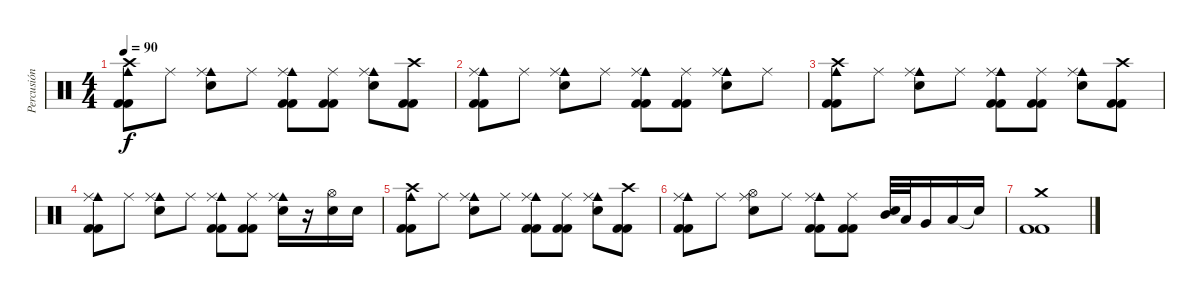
\track ("Percusión" "Percusión") {instrument percussion}
\staff {score}
\articulation defaults
\ts (4 4)
\tempo 90
\clef neutral
\ks c
("Kick (hit) 2" "Cowbell medium (hit)" "Crash high (hit)" "Kick (hit) 2").8{dy f} "Ride (middle)".8 ("Electric Snare (hit)" "Cowbell medium (hit)" "Ride (middle)").8 "Ride (middle)".8 ("Kick (hit) 2" "Cowbell medium (hit)" "Ride (middle)" "Kick (hit) 2").8 ("Kick (hit) 2" "Ride (middle)" "Kick (hit) 2").8 ("Electric Snare (hit)" "Cowbell medium (hit)" "Ride (middle)").8 ("Kick (hit) 2" "Crash high (hit)" "Kick (hit) 2").8 |
("Kick (hit) 2" "Cowbell medium (hit)" "Ride (middle)" "Kick (hit) 2").8 "Ride (middle)".8 ("Electric Snare (hit)" "Cowbell medium (hit)" "Ride (middle)").8 "Ride (middle)".8 ("Kick (hit) 2" "Cowbell medium (hit)" "Ride (middle)" "Kick (hit) 2").8 ("Kick (hit) 2" "Ride (middle)" "Kick (hit) 2").8 ("Electric Snare (hit)" "Cowbell medium (hit)" "Ride (middle)").8 "Ride (middle)".8 |
("Kick (hit) 2" "Cowbell medium (hit)" "Crash high (hit)" "Kick (hit) 2").8 "Ride (middle)".8 ("Electric Snare (hit)" "Cowbell medium (hit)" "Ride (middle)").8 "Ride (middle)".8 ("Kick (hit) 2" "Cowbell medium (hit)" "Ride (middle)" "Kick (hit) 2").8 ("Kick (hit) 2" "Ride (middle)" "Kick (hit) 2").8 ("Electric Snare (hit)" "Cowbell medium (hit)" "Ride (middle)").8 ("Kick (hit) 2" "Crash high (hit)" "Kick (hit) 2").8 |
("Kick (hit) 2" "Cowbell medium (hit)" "Ride (middle)" "Kick (hit) 2").8 "Ride (middle)".8 ("Electric Snare (hit)" "Cowbell medium (hit)" "Ride (middle)").8 "Ride (middle)".8 ("Kick (hit) 2" "Cowbell medium (hit)" "Ride (middle)" "Kick (hit) 2").8 ("Kick (hit) 2" "Ride (middle)" "Kick (hit) 2").8 ("Electric Snare (hit)" "Cowbell medium (hit)" "Ride (middle)").16 r.16 ("Electric Snare (hit)" "Hi-Hat (open)").16 "Electric Snare (hit)".16 |
("Kick (hit) 2" "Cowbell medium (hit)" "Crash high (hit)" "Kick (hit) 2").8 "Ride (middle)".8 ("Electric Snare (hit)" "Cowbell medium (hit)" "Ride (middle)").8 "Ride (middle)".8 ("Kick (hit) 2" "Cowbell medium (hit)" "Ride (middle)" "Kick (hit) 2").8 ("Kick (hit) 2" "Ride (middle)" "Kick (hit) 2").8 ("Electric Snare (hit)" "Cowbell medium (hit)" "Ride (middle)").8 ("Kick (hit) 2" "Crash high (hit)" "Kick (hit) 2").8 |
("Kick (hit) 2" "Cowbell medium (hit)" "Ride (middle)" "Kick (hit) 2").8 "Ride (middle)".8 ("Electric Snare (hit)" "Hi-Hat (open)" "Ride (middle)").8 "Ride (middle)".8 ("Kick (hit) 2" "Cowbell medium (hit)" "Ride (middle)" "Kick (hit) 2").8 ("Kick (hit) 2" "Ride (middle)" "Kick (hit) 2").8 ("Electric Snare (hit)" "Mid Tom (hit)").32 "Low Tom (hit)".32 "Very Low Tom (hit)".16 "Low Floor Tom (hit)".16 "Snare (hit)"{t}.16 |
("Kick (hit) 2" "Crash medium (hit)" "Kick (hit) 2").1
